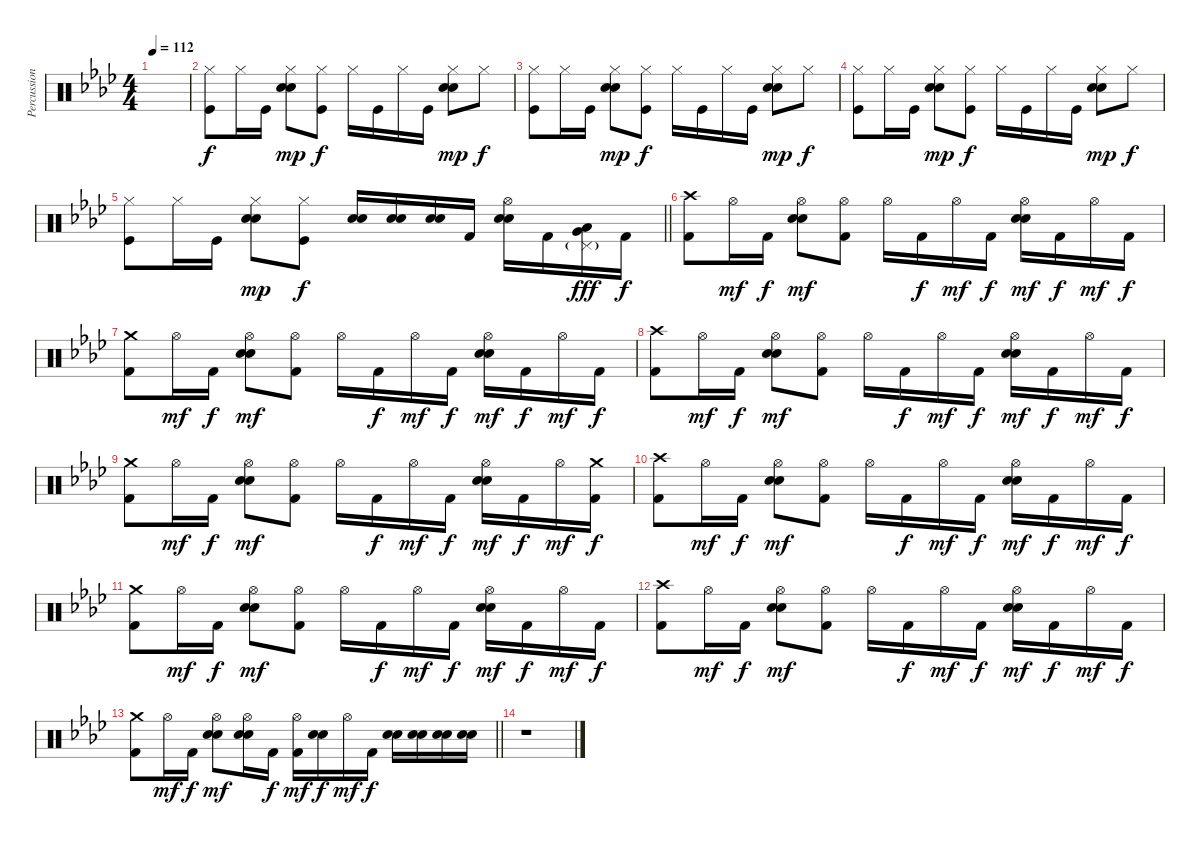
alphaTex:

\track ("Percussion" "Percussion") {instrument percussion}
\staff {score}
\articulation defaults
\ts (4 4)
\tempo 112
\clef neutral
\ks ab
|
("Hi-Hat (closed)" "Kick (hit)").8 "Hi-Hat (closed)".16 "Kick (hit)".16 ("Hi-Hat (closed)" "Electric Snare (hit)" "Snare (hit) 2").8{dy mp} ("Hi-Hat (closed)" "Kick (hit)").8{dy f} "Hi-Hat (closed)".16 "Kick (hit)".16 "Hi-Hat (closed)".16 "Kick (hit)".16 ("Hi-Hat (closed)" "Electric Snare (hit)" "Snare (hit) 2").8{dy mp} "Hi-Hat (closed)".8{dy f} |
("Hi-Hat (closed)" "Kick (hit)").8 "Hi-Hat (closed)".16 "Kick (hit)".16 ("Hi-Hat (closed)" "Electric Snare (hit)" "Snare (hit) 2").8{dy mp} ("Hi-Hat (closed)" "Kick (hit)").8{dy f} "Hi-Hat (closed)".16 "Kick (hit)".16 "Hi-Hat (closed)".16 "Kick (hit)".16 ("Hi-Hat (closed)" "Electric Snare (hit)" "Snare (hit) 2").8{dy mp} "Hi-Hat (closed)".8{dy f} |
("Hi-Hat (closed)" "Kick (hit)").8 "Hi-Hat (closed)".16 "Kick (hit)".16 ("Hi-Hat (closed)" "Electric Snare (hit)" "Snare (hit) 2").8{dy mp} ("Hi-Hat (closed)" "Kick (hit)").8{dy f} "Hi-Hat (closed)".16 "Kick (hit)".16 "Hi-Hat (closed)".16 "Kick (hit)".16 ("Hi-Hat (closed)" "Electric Snare (hit)" "Snare (hit) 2").8{dy mp} "Hi-Hat (closed)".8{dy f} |
\barLineRight lightlight
("Hi-Hat (closed)" "Kick (hit)").8 "Hi-Hat (closed)".16 "Kick (hit)".16 ("Hi-Hat (closed)" "Electric Snare (hit)" "Snare (hit) 2").8{dy mp} ("Hi-Hat (closed)" "Kick (hit)").8{dy f} ("Electric Snare (hit)" "Snare (hit) 2").16 ("Electric Snare (hit)" "Snare (hit) 2").16 ("Electric Snare (hit)" "Snare (hit) 2").16 "Kick (hit) 2".16 ("Hi-Hat (open)" "Electric Snare (hit)" "Snare (hit) 2").16 "Kick (hit) 2".16 ("Pedal Hi-Hat (hit)"{g} "Low Floor Tom (hit)" "Very Low Tom (hit)").16{dy fff} "Kick (hit) 2".16{dy f} |
("Crash high (hit)" "Kick (hit) 2").8 "Hi-Hat (open)".16{dy mf} "Kick (hit) 2".16{dy f} ("Hi-Hat (open)" "Electric Snare (hit)" "Snare (hit) 2").8{dy mf} ("Hi-Hat (open)" "Kick (hit) 2").8 "Hi-Hat (open)".16 "Kick (hit) 2".16{dy f} "Hi-Hat (open)".16{dy mf} "Kick (hit) 2".16{dy f} ("Hi-Hat (open)" "Electric Snare (hit)" "Snare (hit) 2").16{dy mf} "Kick (hit) 2".16{dy f} "Hi-Hat (open)".16{dy mf} "Kick (hit) 2".16{dy f} |
("Crash medium (hit)" "Kick (hit) 2").8 "Hi-Hat (open)".16{dy mf} "Kick (hit) 2".16{dy f} ("Hi-Hat (open)" "Electric Snare (hit)" "Snare (hit) 2").8{dy mf} ("Hi-Hat (open)" "Kick (hit) 2").8 "Hi-Hat (open)".16 "Kick (hit) 2".16{dy f} "Hi-Hat (open)".16{dy mf} "Kick (hit) 2".16{dy f} ("Hi-Hat (open)" "Electric Snare (hit)" "Snare (hit) 2").16{dy mf} "Kick (hit) 2".16{dy f} "Hi-Hat (open)".16{dy mf} "Kick (hit) 2".16{dy f} |
("Crash high (hit)" "Kick (hit) 2").8 "Hi-Hat (open)".16{dy mf} "Kick (hit) 2".16{dy f} ("Hi-Hat (open)" "Electric Snare (hit)" "Snare (hit) 2").8{dy mf} ("Hi-Hat (open)" "Kick (hit) 2").8 "Hi-Hat (open)".16 "Kick (hit) 2".16{dy f} "Hi-Hat (open)".16{dy mf} "Kick (hit) 2".16{dy f} ("Hi-Hat (open)" "Electric Snare (hit)" "Snare (hit) 2").16{dy mf} "Kick (hit) 2".16{dy f} "Hi-Hat (open)".16{dy mf} "Kick (hit) 2".16{dy f} |
("Crash medium (hit)" "Kick (hit) 2").8 "Hi-Hat (open)".16{dy mf} "Kick (hit) 2".16{dy f} ("Hi-Hat (open)" "Electric Snare (hit)" "Snare (hit) 2").8{dy mf} ("Hi-Hat (open)" "Kick (hit) 2").8 "Hi-Hat (open)".16 "Kick (hit) 2".16{dy f} "Hi-Hat (open)".16{dy mf} "Kick (hit) 2".16{dy f} ("Hi-Hat (open)" "Electric Snare (hit)" "Snare (hit) 2").16{dy mf} "Kick (hit) 2".16{dy f} "Hi-Hat (open)".16{dy mf} ("Crash medium (hit)" "Kick (hit) 2").16{dy f} |
("Crash high (hit)" "Kick (hit) 2").8 "Hi-Hat (open)".16{dy mf} "Kick (hit) 2".16{dy f} ("Hi-Hat (open)" "Electric Snare (hit)" "Snare (hit) 2").8{dy mf} ("Hi-Hat (open)" "Kick (hit) 2").8 "Hi-Hat (open)".16 "Kick (hit) 2".16{dy f} "Hi-Hat (open)".16{dy mf} "Kick (hit) 2".16{dy f} ("Hi-Hat (open)" "Electric Snare (hit)" "Snare (hit) 2").16{dy mf} "Kick (hit) 2".16{dy f} "Hi-Hat (open)".16{dy mf} "Kick (hit) 2".16{dy f} |
("Crash medium (hit)" "Kick (hit) 2").8 "Hi-Hat (open)".16{dy mf} "Kick (hit) 2".16{dy f} ("Hi-Hat (open)" "Electric Snare (hit)" "Snare (hit) 2").8{dy mf} ("Hi-Hat (open)" "Kick (hit) 2").8 "Hi-Hat (open)".16 "Kick (hit) 2".16{dy f} "Hi-Hat (open)".16{dy mf} "Kick (hit) 2".16{dy f} ("Hi-Hat (open)" "Electric Snare (hit)" "Snare (hit) 2").16{dy mf} "Kick (hit) 2".16{dy f} "Hi-Hat (open)".16{dy mf} "Kick (hit) 2".16{dy f} |
("Crash high (hit)" "Kick (hit) 2").8 "Hi-Hat (open)".16{dy mf} "Kick (hit) 2".16{dy f} ("Hi-Hat (open)" "Electric Snare (hit)" "Snare (hit) 2").8{dy mf} ("Hi-Hat (open)" "Kick (hit) 2").8 "Hi-Hat (open)".16 "Kick (hit) 2".16{dy f} "Hi-Hat (open)".16{dy mf} "Kick (hit) 2".16{dy f} ("Hi-Hat (open)" "Electric Snare (hit)" "Snare (hit) 2").16{dy mf} "Kick (hit) 2".16{dy f} "Hi-Hat (open)".16{dy mf} "Kick (hit) 2".16{dy f} |
\barLineRight lightlight
("Crash medium (hit)" "Kick (hit) 2").8 "Hi-Hat (open)".16{dy mf} "Kick (hit) 2".16{dy f} ("Hi-Hat (open)" "Electric Snare (hit)" "Snare (hit) 2").8{dy mf} ("Hi-Hat (open)" "Electric Snare (hit)" "Snare (hit) 2").16 "Kick (hit) 2".16{dy f} ("Hi-Hat (open)" "Kick (hit) 2").16{dy mf} ("Electric Snare (hit)" "Snare (hit) 2").16{dy f} "Hi-Hat (open)".16{dy mf} "Kick (hit) 2".16{dy f} ("Electric Snare (hit)" "Snare (hit) 2").16 ("Electric Snare (hit)" "Snare (hit) 2").16 ("Electric Snare (hit)" "Snare (hit) 2").16 ("Electric Snare (hit)" "Snare (hit) 2").16 |
r.1
